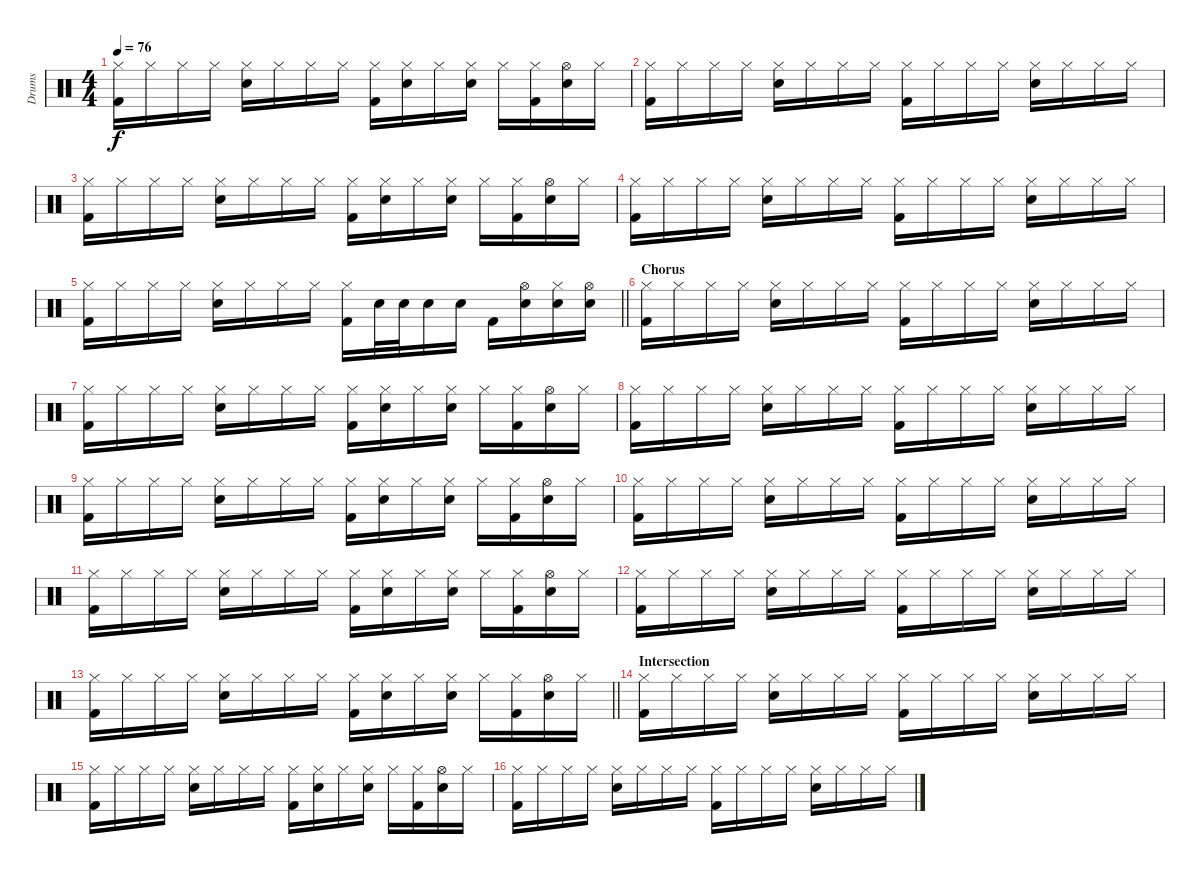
\track ("Drums" "Drums") {instrument percussion}
\staff {score}
\articulation defaults
\ts (4 4)
\tempo 76
\clef neutral
\ks c
("Hi-Hat (closed)" "Kick (hit) 2").16{dy f} "Hi-Hat (closed)".16 "Hi-Hat (closed)".16 "Hi-Hat (closed)".16 ("Hi-Hat (closed)" "Snare (hit) 2").16 "Hi-Hat (closed)".16 "Hi-Hat (closed)".16 "Hi-Hat (closed)".16 ("Hi-Hat (closed)" "Kick (hit) 2").16 ("Hi-Hat (closed)" "Snare (hit) 2").16 "Hi-Hat (closed)".16 ("Hi-Hat (closed)" "Snare (hit) 2").16 "Hi-Hat (closed)".16 ("Hi-Hat (closed)" "Kick (hit) 2").16 ("Hi-Hat (open)" "Snare (hit) 2").16 "Hi-Hat (closed)".16 |
("Hi-Hat (closed)" "Kick (hit) 2").16 "Hi-Hat (closed)".16 "Hi-Hat (closed)".16 "Hi-Hat (closed)".16 ("Hi-Hat (closed)" "Snare (hit) 2").16 "Hi-Hat (closed)".16 "Hi-Hat (closed)".16 "Hi-Hat (closed)".16 ("Hi-Hat (closed)" "Kick (hit) 2").16 "Hi-Hat (closed)".16 "Hi-Hat (closed)".16 "Hi-Hat (closed)".16 ("Hi-Hat (closed)" "Snare (hit) 2").16 "Hi-Hat (closed)".16 "Hi-Hat (closed)".16 "Hi-Hat (closed)".16 |
("Hi-Hat (closed)" "Kick (hit) 2").16 "Hi-Hat (closed)".16 "Hi-Hat (closed)".16 "Hi-Hat (closed)".16 ("Hi-Hat (closed)" "Snare (hit) 2").16 "Hi-Hat (closed)".16 "Hi-Hat (closed)".16 "Hi-Hat (closed)".16 ("Hi-Hat (closed)" "Kick (hit) 2").16 ("Hi-Hat (closed)" "Snare (hit) 2").16 "Hi-Hat (closed)".16 ("Hi-Hat (closed)" "Snare (hit) 2").16 "Hi-Hat (closed)".16 ("Hi-Hat (closed)" "Kick (hit) 2").16 ("Hi-Hat (open)" "Snare (hit) 2").16 "Hi-Hat (closed)".16 |
("Hi-Hat (closed)" "Kick (hit) 2").16 "Hi-Hat (closed)".16 "Hi-Hat (closed)".16 "Hi-Hat (closed)".16 ("Hi-Hat (closed)" "Snare (hit) 2").16 "Hi-Hat (closed)".16 "Hi-Hat (closed)".16 "Hi-Hat (closed)".16 ("Hi-Hat (closed)" "Kick (hit) 2").16 "Hi-Hat (closed)".16 "Hi-Hat (closed)".16 "Hi-Hat (closed)".16 ("Hi-Hat (closed)" "Snare (hit) 2").16 "Hi-Hat (closed)".16 "Hi-Hat (closed)".16 "Hi-Hat (closed)".16 |
\barLineRight lightlight
("Hi-Hat (closed)" "Kick (hit) 2").16 "Hi-Hat (closed)".16 "Hi-Hat (closed)".16 "Hi-Hat (closed)".16 ("Hi-Hat (closed)" "Snare (hit) 2").16 "Hi-Hat (closed)".16 "Hi-Hat (closed)".16 "Hi-Hat (closed)".16 ("Hi-Hat (closed)" "Kick (hit) 2").16 "Snare (hit) 2".32 "Snare (hit) 2".32 "Snare (hit) 2".16 "Snare (hit) 2".16 "Kick (hit) 2".16 ("Hi-Hat (open)" "Snare (hit) 2").16 ("Hi-Hat (closed)" "Snare (hit) 2").16 ("Hi-Hat (open)" "Snare (hit) 2").16 |
\section ("" "Chorus")
("Hi-Hat (closed)" "Kick (hit) 2").16 "Hi-Hat (closed)".16 "Hi-Hat (closed)".16 "Hi-Hat (closed)".16 ("Hi-Hat (closed)" "Snare (hit) 2").16 "Hi-Hat (closed)".16 "Hi-Hat (closed)".16 "Hi-Hat (closed)".16 ("Hi-Hat (closed)" "Kick (hit) 2").16 "Hi-Hat (closed)".16 "Hi-Hat (closed)".16 "Hi-Hat (closed)".16 ("Hi-Hat (closed)" "Snare (hit) 2").16 "Hi-Hat (closed)".16 "Hi-Hat (closed)".16 "Hi-Hat (closed)".16 |
("Hi-Hat (closed)" "Kick (hit) 2").16 "Hi-Hat (closed)".16 "Hi-Hat (closed)".16 "Hi-Hat (closed)".16 ("Hi-Hat (closed)" "Snare (hit) 2").16 "Hi-Hat (closed)".16 "Hi-Hat (closed)".16 "Hi-Hat (closed)".16 ("Hi-Hat (closed)" "Kick (hit) 2").16 ("Hi-Hat (closed)" "Snare (hit) 2").16 "Hi-Hat (closed)".16 ("Hi-Hat (closed)" "Snare (hit) 2").16 "Hi-Hat (closed)".16 ("Hi-Hat (closed)" "Kick (hit) 2").16 ("Hi-Hat (open)" "Snare (hit) 2").16 "Hi-Hat (closed)".16 |
("Hi-Hat (closed)" "Kick (hit) 2").16 "Hi-Hat (closed)".16 "Hi-Hat (closed)".16 "Hi-Hat (closed)".16 ("Hi-Hat (closed)" "Snare (hit) 2").16 "Hi-Hat (closed)".16 "Hi-Hat (closed)".16 "Hi-Hat (closed)".16 ("Hi-Hat (closed)" "Kick (hit) 2").16 "Hi-Hat (closed)".16 "Hi-Hat (closed)".16 "Hi-Hat (closed)".16 ("Hi-Hat (closed)" "Snare (hit) 2").16 "Hi-Hat (closed)".16 "Hi-Hat (closed)".16 "Hi-Hat (closed)".16 |
("Hi-Hat (closed)" "Kick (hit) 2").16 "Hi-Hat (closed)".16 "Hi-Hat (closed)".16 "Hi-Hat (closed)".16 ("Hi-Hat (closed)" "Snare (hit) 2").16 "Hi-Hat (closed)".16 "Hi-Hat (closed)".16 "Hi-Hat (closed)".16 ("Hi-Hat (closed)" "Kick (hit) 2").16 ("Hi-Hat (closed)" "Snare (hit) 2").16 "Hi-Hat (closed)".16 ("Hi-Hat (closed)" "Snare (hit) 2").16 "Hi-Hat (closed)".16 ("Hi-Hat (closed)" "Kick (hit) 2").16 ("Hi-Hat (open)" "Snare (hit) 2").16 "Hi-Hat (closed)".16 |
("Hi-Hat (closed)" "Kick (hit) 2").16 "Hi-Hat (closed)".16 "Hi-Hat (closed)".16 "Hi-Hat (closed)".16 ("Hi-Hat (closed)" "Snare (hit) 2").16 "Hi-Hat (closed)".16 "Hi-Hat (closed)".16 "Hi-Hat (closed)".16 ("Hi-Hat (closed)" "Kick (hit) 2").16 "Hi-Hat (closed)".16 "Hi-Hat (closed)".16 "Hi-Hat (closed)".16 ("Hi-Hat (closed)" "Snare (hit) 2").16 "Hi-Hat (closed)".16 "Hi-Hat (closed)".16 "Hi-Hat (closed)".16 |
("Hi-Hat (closed)" "Kick (hit) 2").16 "Hi-Hat (closed)".16 "Hi-Hat (closed)".16 "Hi-Hat (closed)".16 ("Hi-Hat (closed)" "Snare (hit) 2").16 "Hi-Hat (closed)".16 "Hi-Hat (closed)".16 "Hi-Hat (closed)".16 ("Hi-Hat (closed)" "Kick (hit) 2").16 ("Hi-Hat (closed)" "Snare (hit) 2").16 "Hi-Hat (closed)".16 ("Hi-Hat (closed)" "Snare (hit) 2").16 "Hi-Hat (closed)".16 ("Hi-Hat (closed)" "Kick (hit) 2").16 ("Hi-Hat (open)" "Snare (hit) 2").16 "Hi-Hat (closed)".16 |
("Hi-Hat (closed)" "Kick (hit) 2").16 "Hi-Hat (closed)".16 "Hi-Hat (closed)".16 "Hi-Hat (closed)".16 ("Hi-Hat (closed)" "Snare (hit) 2").16 "Hi-Hat (closed)".16 "Hi-Hat (closed)".16 "Hi-Hat (closed)".16 ("Hi-Hat (closed)" "Kick (hit) 2").16 "Hi-Hat (closed)".16 "Hi-Hat (closed)".16 "Hi-Hat (closed)".16 ("Hi-Hat (closed)" "Snare (hit) 2").16 "Hi-Hat (closed)".16 "Hi-Hat (closed)".16 "Hi-Hat (closed)".16 |
\barLineRight lightlight
("Hi-Hat (closed)" "Kick (hit) 2").16 "Hi-Hat (closed)".16 "Hi-Hat (closed)".16 "Hi-Hat (closed)".16 ("Hi-Hat (closed)" "Snare (hit) 2").16 "Hi-Hat (closed)".16 "Hi-Hat (closed)".16 "Hi-Hat (closed)".16 ("Hi-Hat (closed)" "Kick (hit) 2").16 ("Hi-Hat (closed)" "Snare (hit) 2").16 "Hi-Hat (closed)".16 ("Hi-Hat (closed)" "Snare (hit) 2").16 "Hi-Hat (closed)".16 ("Hi-Hat (closed)" "Kick (hit) 2").16 ("Hi-Hat (open)" "Snare (hit) 2").16 "Hi-Hat (closed)".16 |
\section ("" "Intersection")
("Hi-Hat (closed)" "Kick (hit) 2").16 "Hi-Hat (closed)".16 "Hi-Hat (closed)".16 "Hi-Hat (closed)".16 ("Hi-Hat (closed)" "Snare (hit) 2").16 "Hi-Hat (closed)".16 "Hi-Hat (closed)".16 "Hi-Hat (closed)".16 ("Hi-Hat (closed)" "Kick (hit) 2").16 "Hi-Hat (closed)".16 "Hi-Hat (closed)".16 "Hi-Hat (closed)".16 ("Hi-Hat (closed)" "Snare (hit) 2").16 "Hi-Hat (closed)".16 "Hi-Hat (closed)".16 "Hi-Hat (closed)".16 |
("Hi-Hat (closed)" "Kick (hit) 2").16 "Hi-Hat (closed)".16 "Hi-Hat (closed)".16 "Hi-Hat (closed)".16 ("Hi-Hat (closed)" "Snare (hit) 2").16 "Hi-Hat (closed)".16 "Hi-Hat (closed)".16 "Hi-Hat (closed)".16 ("Hi-Hat (closed)" "Kick (hit) 2").16 ("Hi-Hat (closed)" "Snare (hit) 2").16 "Hi-Hat (closed)".16 ("Hi-Hat (closed)" "Snare (hit) 2").16 "Hi-Hat (closed)".16 ("Hi-Hat (closed)" "Kick (hit) 2").16 ("Hi-Hat (open)" "Snare (hit) 2").16 "Hi-Hat (closed)".16 |
("Hi-Hat (closed)" "Kick (hit) 2").16 "Hi-Hat (closed)".16 "Hi-Hat (closed)".16 "Hi-Hat (closed)".16 ("Hi-Hat (closed)" "Snare (hit) 2").16 "Hi-Hat (closed)".16 "Hi-Hat (closed)".16 "Hi-Hat (closed)".16 ("Hi-Hat (closed)" "Kick (hit) 2").16 "Hi-Hat (closed)".16 "Hi-Hat (closed)".16 "Hi-Hat (closed)".16 ("Hi-Hat (closed)" "Snare (hit) 2").16 "Hi-Hat (closed)".16 "Hi-Hat (closed)".16 "Hi-Hat (closed)".16
